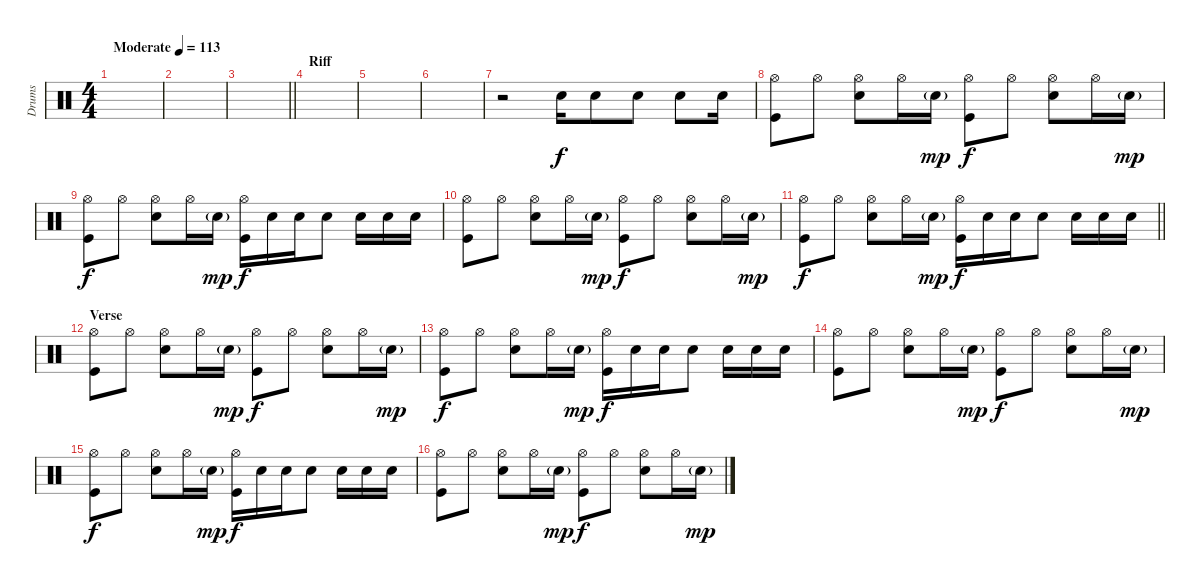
\track ("Drums" "Drums") {instrument percussion}
\staff {score}
\articulation defaults
\ts (4 4)
\tempo (113 "Moderate")
\clef neutral
\ks c
|
|
\barLineRight lightlight
|
\section ("" "Riff")
|
|
|
r.2 "Snare (hit) 2".16 "Snare (hit) 2".8 "Snare (hit) 2".8 "Snare (hit) 2".8 "Snare (hit) 2".16 |
("Hi-Hat (open)" "Kick (hit)").8 "Hi-Hat (open)".8 ("Hi-Hat (open)" "Snare (hit) 2").8 "Hi-Hat (open)".16 "Snare (hit) 2"{g}.16{dy mp} ("Hi-Hat (open)" "Kick (hit)").8{dy f} "Hi-Hat (open)".8 ("Hi-Hat (open)" "Snare (hit) 2").8 "Hi-Hat (open)".16 "Snare (hit) 2"{g}.16{dy mp} |
("Hi-Hat (open)" "Kick (hit)").8{dy f} "Hi-Hat (open)".8 ("Hi-Hat (open)" "Snare (hit) 2").8 "Hi-Hat (open)".16 "Snare (hit) 2"{g}.16{dy mp} ("Hi-Hat (open)" "Kick (hit)").16{dy f} "Snare (hit) 2".16 "Snare (hit) 2".16 "Snare (hit) 2".8 "Snare (hit) 2".16 "Snare (hit) 2".16 "Snare (hit) 2".16 |
("Hi-Hat (open)" "Kick (hit)").8 "Hi-Hat (open)".8 ("Hi-Hat (open)" "Snare (hit) 2").8 "Hi-Hat (open)".16 "Snare (hit) 2"{g}.16{dy mp} ("Hi-Hat (open)" "Kick (hit)").8{dy f} "Hi-Hat (open)".8 ("Hi-Hat (open)" "Snare (hit) 2").8 "Hi-Hat (open)".16 "Snare (hit) 2"{g}.16{dy mp} |
\barLineRight lightlight
("Hi-Hat (open)" "Kick (hit)").8{dy f} "Hi-Hat (open)".8 ("Hi-Hat (open)" "Snare (hit) 2").8 "Hi-Hat (open)".16 "Snare (hit) 2"{g}.16{dy mp} ("Hi-Hat (open)" "Kick (hit)").16{dy f} "Snare (hit) 2".16 "Snare (hit) 2".16 "Snare (hit) 2".8 "Snare (hit) 2".16 "Snare (hit) 2".16 "Snare (hit) 2".16 |
\section ("" "Verse")
("Hi-Hat (open)" "Kick (hit)").8 "Hi-Hat (open)".8 ("Hi-Hat (open)" "Snare (hit) 2").8 "Hi-Hat (open)".16 "Snare (hit) 2"{g}.16{dy mp} ("Hi-Hat (open)" "Kick (hit)").8{dy f} "Hi-Hat (open)".8 ("Hi-Hat (open)" "Snare (hit) 2").8 "Hi-Hat (open)".16 "Snare (hit) 2"{g}.16{dy mp} |
("Hi-Hat (open)" "Kick (hit)").8{dy f} "Hi-Hat (open)".8 ("Hi-Hat (open)" "Snare (hit) 2").8 "Hi-Hat (open)".16 "Snare (hit) 2"{g}.16{dy mp} ("Hi-Hat (open)" "Kick (hit)").16{dy f} "Snare (hit) 2".16 "Snare (hit) 2".16 "Snare (hit) 2".8 "Snare (hit) 2".16 "Snare (hit) 2".16 "Snare (hit) 2".16 |
("Hi-Hat (open)" "Kick (hit)").8 "Hi-Hat (open)".8 ("Hi-Hat (open)" "Snare (hit) 2").8 "Hi-Hat (open)".16 "Snare (hit) 2"{g}.16{dy mp} ("Hi-Hat (open)" "Kick (hit)").8{dy f} "Hi-Hat (open)".8 ("Hi-Hat (open)" "Snare (hit) 2").8 "Hi-Hat (open)".16 "Snare (hit) 2"{g}.16{dy mp} |
("Hi-Hat (open)" "Kick (hit)").8{dy f} "Hi-Hat (open)".8 ("Hi-Hat (open)" "Snare (hit) 2").8 "Hi-Hat (open)".16 "Snare (hit) 2"{g}.16{dy mp} ("Hi-Hat (open)" "Kick (hit)").16{dy f} "Snare (hit) 2".16 "Snare (hit) 2".16 "Snare (hit) 2".8 "Snare (hit) 2".16 "Snare (hit) 2".16 "Snare (hit) 2".16 |
("Hi-Hat (open)" "Kick (hit)").8 "Hi-Hat (open)".8 ("Hi-Hat (open)" "Snare (hit) 2").8 "Hi-Hat (open)".16 "Snare (hit) 2"{g}.16{dy mp} ("Hi-Hat (open)" "Kick (hit)").8{dy f} "Hi-Hat (open)".8 ("Hi-Hat (open)" "Snare (hit) 2").8 "Hi-Hat (open)".16 "Snare (hit) 2"{g}.16{dy mp}
